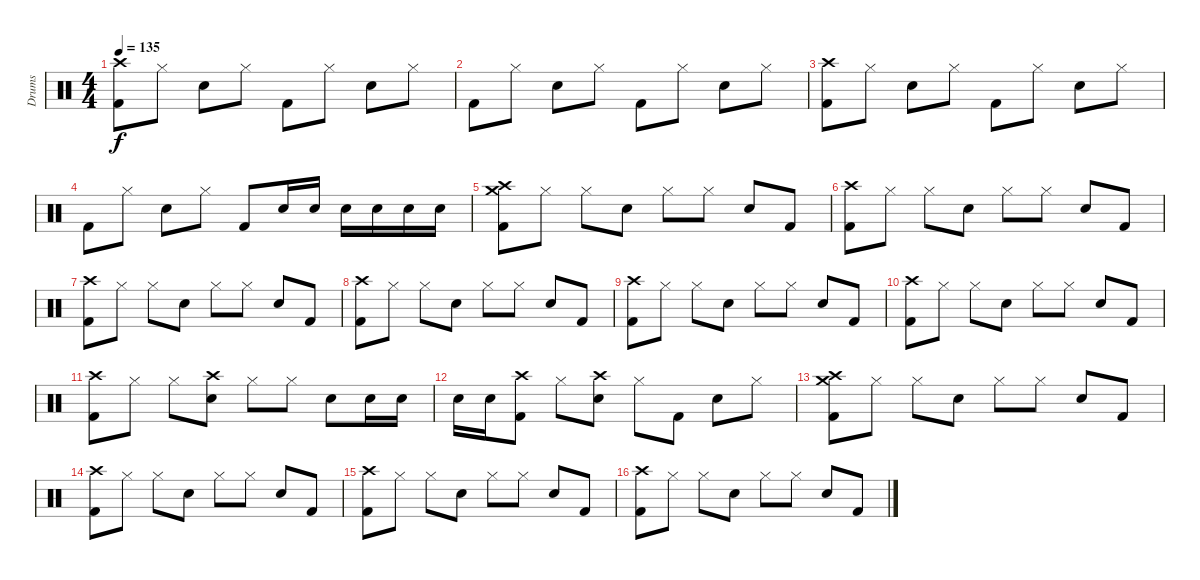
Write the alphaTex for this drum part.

\track ("Drums" "Drums") {instrument percussion}
\staff {score}
\articulation defaults
\ts (4 4)
\tempo 135
\clef neutral
\ks c
("Crash high (hit)" "Kick (hit) 2").8{dy f} "Hi-Hat (closed)".8 "Snare (hit) 2".8 "Hi-Hat (closed)".8 "Kick (hit) 2".8 "Hi-Hat (closed)".8 "Snare (hit) 2".8 "Hi-Hat (closed)".8 |
"Kick (hit) 2".8 "Hi-Hat (closed)".8 "Snare (hit) 2".8 "Hi-Hat (closed)".8 "Kick (hit) 2".8 "Hi-Hat (closed)".8 "Snare (hit) 2".8 "Hi-Hat (closed)".8 |
("Crash high (hit)" "Kick (hit) 2").8 "Hi-Hat (closed)".8 "Snare (hit) 2".8 "Hi-Hat (closed)".8 "Kick (hit) 2".8 "Hi-Hat (closed)".8 "Snare (hit) 2".8 "Hi-Hat (closed)".8 |
"Kick (hit) 2".8 "Hi-Hat (closed)".8 "Snare (hit) 2".8 "Hi-Hat (closed)".8 "Kick (hit) 2".8 "Snare (hit) 2".16 "Snare (hit) 2".16 "Snare (hit) 2".16 "Snare (hit) 2".16 "Snare (hit) 2".16 "Snare (hit) 2".16 |
("Crash medium (hit)" "Crash high (hit)" "Kick (hit) 2").8 "Hi-Hat (closed)".8 "Hi-Hat (closed)".8 "Snare (hit) 2".8 "Hi-Hat (closed)".8 "Hi-Hat (closed)".8 "Snare (hit) 2".8 "Kick (hit) 2".8 |
("Crash high (hit)" "Kick (hit) 2").8 "Hi-Hat (closed)".8 "Hi-Hat (closed)".8 "Snare (hit) 2".8 "Hi-Hat (closed)".8 "Hi-Hat (closed)".8 "Snare (hit) 2".8 "Kick (hit) 2".8 |
("Crash high (hit)" "Kick (hit) 2").8 "Hi-Hat (closed)".8 "Hi-Hat (closed)".8 "Snare (hit) 2".8 "Hi-Hat (closed)".8 "Hi-Hat (closed)".8 "Snare (hit) 2".8 "Kick (hit) 2".8 |
("Crash high (hit)" "Kick (hit) 2").8 "Hi-Hat (closed)".8 "Hi-Hat (closed)".8 "Snare (hit) 2".8 "Hi-Hat (closed)".8 "Hi-Hat (closed)".8 "Snare (hit) 2".8 "Kick (hit) 2".8 |
("Crash high (hit)" "Kick (hit) 2").8 "Hi-Hat (closed)".8 "Hi-Hat (closed)".8 "Snare (hit) 2".8 "Hi-Hat (closed)".8 "Hi-Hat (closed)".8 "Snare (hit) 2".8 "Kick (hit) 2".8 |
("Crash high (hit)" "Kick (hit) 2").8 "Hi-Hat (closed)".8 "Hi-Hat (closed)".8 "Snare (hit) 2".8 "Hi-Hat (closed)".8 "Hi-Hat (closed)".8 "Snare (hit) 2".8 "Kick (hit) 2".8 |
("Crash high (hit)" "Kick (hit) 2").8 "Hi-Hat (closed)".8 "Hi-Hat (closed)".8 ("Crash high (hit)" "Snare (hit) 2").8 "Hi-Hat (closed)".8 "Hi-Hat (closed)".8 "Snare (hit) 2".8 "Snare (hit) 2".16 "Snare (hit) 2".16 |
"Snare (hit) 2".16 "Snare (hit) 2".16 ("Crash high (hit)" "Kick (hit) 2").8 "Hi-Hat (closed)".8 ("Crash high (hit)" "Snare (hit) 2").8 "Hi-Hat (closed)".8 "Kick (hit) 2".8 "Snare (hit) 2".8 "Hi-Hat (closed)".8 |
("Crash medium (hit)" "Crash high (hit)" "Kick (hit) 2").8 "Hi-Hat (closed)".8 "Hi-Hat (closed)".8 "Snare (hit) 2".8 "Hi-Hat (closed)".8 "Hi-Hat (closed)".8 "Snare (hit) 2".8 "Kick (hit) 2".8 |
("Crash high (hit)" "Kick (hit) 2").8 "Hi-Hat (closed)".8 "Hi-Hat (closed)".8 "Snare (hit) 2".8 "Hi-Hat (closed)".8 "Hi-Hat (closed)".8 "Snare (hit) 2".8 "Kick (hit) 2".8 |
("Crash high (hit)" "Kick (hit) 2").8 "Hi-Hat (closed)".8 "Hi-Hat (closed)".8 "Snare (hit) 2".8 "Hi-Hat (closed)".8 "Hi-Hat (closed)".8 "Snare (hit) 2".8 "Kick (hit) 2".8 |
("Crash high (hit)" "Kick (hit) 2").8 "Hi-Hat (closed)".8 "Hi-Hat (closed)".8 "Snare (hit) 2".8 "Hi-Hat (closed)".8 "Hi-Hat (closed)".8 "Snare (hit) 2".8 "Kick (hit) 2".8
